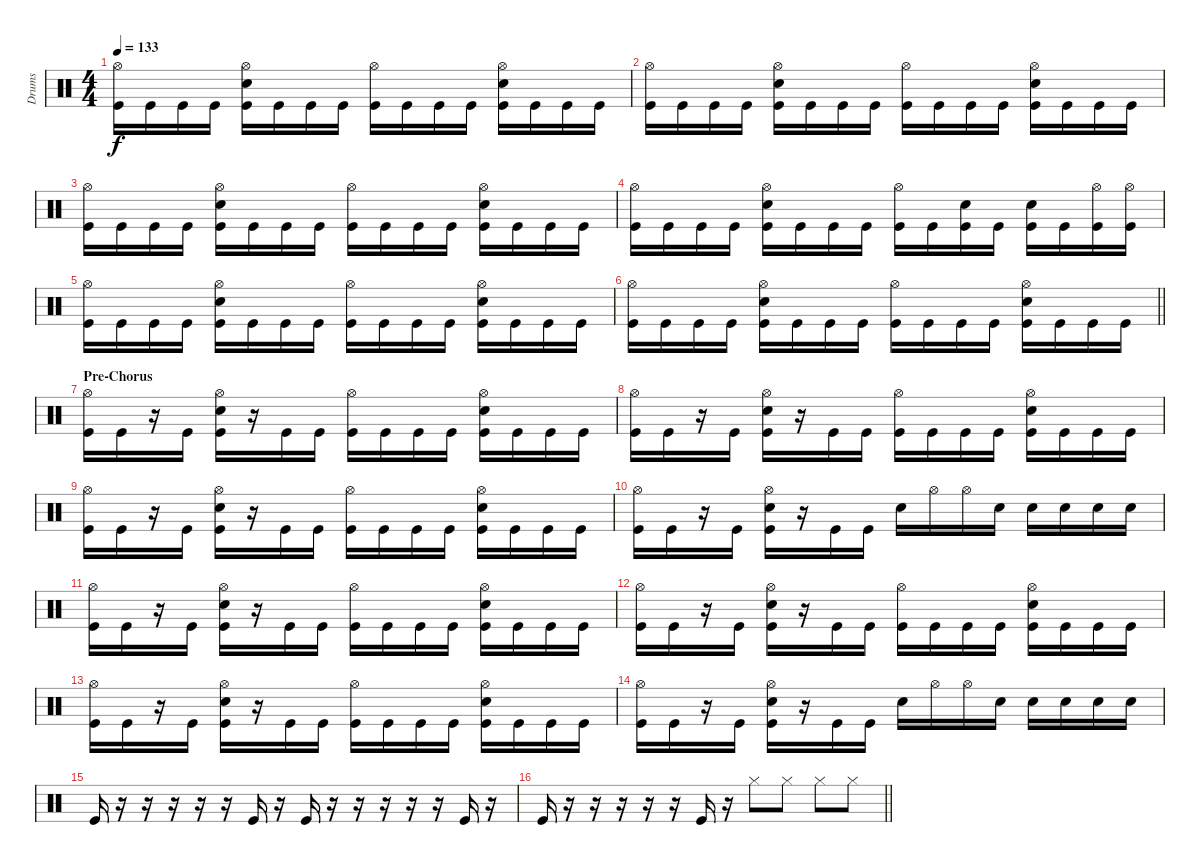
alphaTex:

\track ("Drums" "Drums") {instrument percussion}
\staff {score}
\articulation defaults
\ts (4 4)
\tempo 133
\clef neutral
\ks c
("Hi-Hat (open)" "Kick (hit)").16{dy f} "Kick (hit)".16 "Kick (hit)".16 "Kick (hit)".16 ("Hi-Hat (open)" "Electric Snare (hit)" "Kick (hit)").16 "Kick (hit)".16 "Kick (hit)".16 "Kick (hit)".16 ("Hi-Hat (open)" "Kick (hit)").16 "Kick (hit)".16 "Kick (hit)".16 "Kick (hit)".16 ("Hi-Hat (open)" "Electric Snare (hit)" "Kick (hit)").16 "Kick (hit)".16 "Kick (hit)".16 "Kick (hit)".16 |
("Hi-Hat (open)" "Kick (hit)").16 "Kick (hit)".16 "Kick (hit)".16 "Kick (hit)".16 ("Hi-Hat (open)" "Electric Snare (hit)" "Kick (hit)").16 "Kick (hit)".16 "Kick (hit)".16 "Kick (hit)".16 ("Hi-Hat (open)" "Kick (hit)").16 "Kick (hit)".16 "Kick (hit)".16 "Kick (hit)".16 ("Hi-Hat (open)" "Electric Snare (hit)" "Kick (hit)").16 "Kick (hit)".16 "Kick (hit)".16 "Kick (hit)".16 |
("Hi-Hat (open)" "Kick (hit)").16 "Kick (hit)".16 "Kick (hit)".16 "Kick (hit)".16 ("Hi-Hat (open)" "Electric Snare (hit)" "Kick (hit)").16 "Kick (hit)".16 "Kick (hit)".16 "Kick (hit)".16 ("Hi-Hat (open)" "Kick (hit)").16 "Kick (hit)".16 "Kick (hit)".16 "Kick (hit)".16 ("Hi-Hat (open)" "Electric Snare (hit)" "Kick (hit)").16 "Kick (hit)".16 "Kick (hit)".16 "Kick (hit)".16 |
("Hi-Hat (open)" "Kick (hit)").16 "Kick (hit)".16 "Kick (hit)".16 "Kick (hit)".16 ("Hi-Hat (open)" "Electric Snare (hit)" "Kick (hit)").16 "Kick (hit)".16 "Kick (hit)".16 "Kick (hit)".16 ("Hi-Hat (open)" "Kick (hit)").16 "Kick (hit)".16 ("Electric Snare (hit)" "Kick (hit)").16 "Kick (hit)".16 ("Electric Snare (hit)" "Kick (hit)").16 "Kick (hit)".16 ("Hi-Hat (open)" "Kick (hit)").16 ("Hi-Hat (open)" "Kick (hit)").16 |
("Hi-Hat (open)" "Kick (hit)").16 "Kick (hit)".16 "Kick (hit)".16 "Kick (hit)".16 ("Hi-Hat (open)" "Electric Snare (hit)" "Kick (hit)").16 "Kick (hit)".16 "Kick (hit)".16 "Kick (hit)".16 ("Hi-Hat (open)" "Kick (hit)").16 "Kick (hit)".16 "Kick (hit)".16 "Kick (hit)".16 ("Hi-Hat (open)" "Electric Snare (hit)" "Kick (hit)").16 "Kick (hit)".16 "Kick (hit)".16 "Kick (hit)".16 |
\barLineRight lightlight
("Hi-Hat (open)" "Kick (hit)").16 "Kick (hit)".16 "Kick (hit)".16 "Kick (hit)".16 ("Hi-Hat (open)" "Electric Snare (hit)" "Kick (hit)").16 "Kick (hit)".16 "Kick (hit)".16 "Kick (hit)".16 ("Hi-Hat (open)" "Kick (hit)").16 "Kick (hit)".16 "Kick (hit)".16 "Kick (hit)".16 ("Hi-Hat (open)" "Electric Snare (hit)" "Kick (hit)").16 "Kick (hit)".16 "Kick (hit)".16 "Kick (hit)".16 |
\section ("" "Pre-Chorus")
("Hi-Hat (open)" "Kick (hit)").16 "Kick (hit)".16 r.16 "Kick (hit)".16 ("Hi-Hat (open)" "Electric Snare (hit)" "Kick (hit)").16 r.16 "Kick (hit)".16 "Kick (hit)".16 ("Hi-Hat (open)" "Kick (hit)").16 "Kick (hit)".16 "Kick (hit)".16 "Kick (hit)".16 ("Hi-Hat (open)" "Electric Snare (hit)" "Kick (hit)").16 "Kick (hit)".16 "Kick (hit)".16 "Kick (hit)".16 |
("Hi-Hat (open)" "Kick (hit)").16 "Kick (hit)".16 r.16 "Kick (hit)".16 ("Hi-Hat (open)" "Electric Snare (hit)" "Kick (hit)").16 r.16 "Kick (hit)".16 "Kick (hit)".16 ("Hi-Hat (open)" "Kick (hit)").16 "Kick (hit)".16 "Kick (hit)".16 "Kick (hit)".16 ("Hi-Hat (open)" "Electric Snare (hit)" "Kick (hit)").16 "Kick (hit)".16 "Kick (hit)".16 "Kick (hit)".16 |
("Hi-Hat (open)" "Kick (hit)").16 "Kick (hit)".16 r.16 "Kick (hit)".16 ("Hi-Hat (open)" "Electric Snare (hit)" "Kick (hit)").16 r.16 "Kick (hit)".16 "Kick (hit)".16 ("Hi-Hat (open)" "Kick (hit)").16 "Kick (hit)".16 "Kick (hit)".16 "Kick (hit)".16 ("Hi-Hat (open)" "Electric Snare (hit)" "Kick (hit)").16 "Kick (hit)".16 "Kick (hit)".16 "Kick (hit)".16 |
("Hi-Hat (open)" "Kick (hit)").16 "Kick (hit)".16 r.16 "Kick (hit)".16 ("Hi-Hat (open)" "Electric Snare (hit)" "Kick (hit)").16 r.16 "Kick (hit)".16 "Kick (hit)".16 "Electric Snare (hit)".16 "Hi-Hat (open)".16 "Hi-Hat (open)".16 "Electric Snare (hit)".16 "Electric Snare (hit)".16 "Electric Snare (hit)".16 "Electric Snare (hit)".16 "Electric Snare (hit)".16 |
("Hi-Hat (open)" "Kick (hit)").16 "Kick (hit)".16 r.16 "Kick (hit)".16 ("Hi-Hat (open)" "Electric Snare (hit)" "Kick (hit)").16 r.16 "Kick (hit)".16 "Kick (hit)".16 ("Hi-Hat (open)" "Kick (hit)").16 "Kick (hit)".16 "Kick (hit)".16 "Kick (hit)".16 ("Hi-Hat (open)" "Electric Snare (hit)" "Kick (hit)").16 "Kick (hit)".16 "Kick (hit)".16 "Kick (hit)".16 |
("Hi-Hat (open)" "Kick (hit)").16 "Kick (hit)".16 r.16 "Kick (hit)".16 ("Hi-Hat (open)" "Electric Snare (hit)" "Kick (hit)").16 r.16 "Kick (hit)".16 "Kick (hit)".16 ("Hi-Hat (open)" "Kick (hit)").16 "Kick (hit)".16 "Kick (hit)".16 "Kick (hit)".16 ("Hi-Hat (open)" "Electric Snare (hit)" "Kick (hit)").16 "Kick (hit)".16 "Kick (hit)".16 "Kick (hit)".16 |
("Hi-Hat (open)" "Kick (hit)").16 "Kick (hit)".16 r.16 "Kick (hit)".16 ("Hi-Hat (open)" "Electric Snare (hit)" "Kick (hit)").16 r.16 "Kick (hit)".16 "Kick (hit)".16 ("Hi-Hat (open)" "Kick (hit)").16 "Kick (hit)".16 "Kick (hit)".16 "Kick (hit)".16 ("Hi-Hat (open)" "Electric Snare (hit)" "Kick (hit)").16 "Kick (hit)".16 "Kick (hit)".16 "Kick (hit)".16 |
("Hi-Hat (open)" "Kick (hit)").16 "Kick (hit)".16 r.16 "Kick (hit)".16 ("Hi-Hat (open)" "Electric Snare (hit)" "Kick (hit)").16 r.16 "Kick (hit)".16 "Kick (hit)".16 "Electric Snare (hit)".16 "Hi-Hat (open)".16 "Hi-Hat (open)".16 "Electric Snare (hit)".16 "Electric Snare (hit)".16 "Electric Snare (hit)".16 "Electric Snare (hit)".16 "Electric Snare (hit)".16 |
"Kick (hit)".16 r.16 r.16 r.16 r.16 r.16 "Kick (hit)".16 r.16 "Kick (hit)".16 r.16 r.16 r.16 r.16 r.16 "Kick (hit)".16 r.16 |
\barLineRight lightlight "Kick (hit)".16
r.16 r.16 r.16 r.16 r.16 "Kick (hit)".16 r.16 "Hi-Hat (closed)".8 "Hi-Hat (closed)".8 "Hi-Hat (closed)".8 "Hi-Hat (closed)".8
